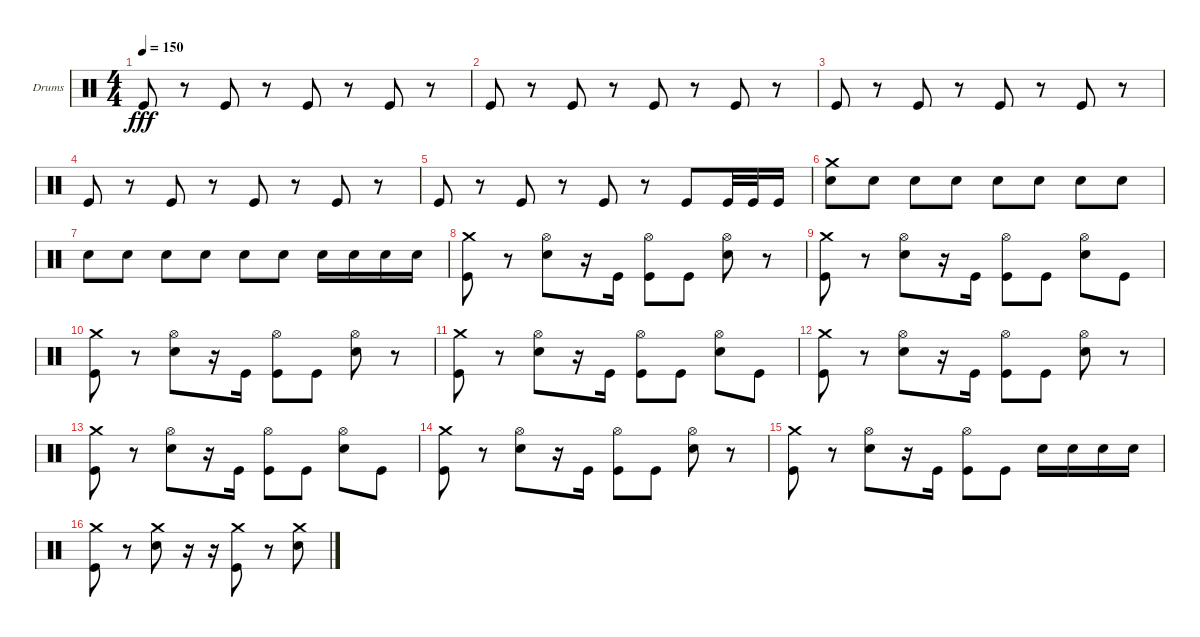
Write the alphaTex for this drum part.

\bracketExtendMode groupsimilarinstruments
\firstSystemTrackNameOrientation horizontal
\otherSystemsTrackNameOrientation horizontal
\track ("Jamie" "Drums") {instrument percussion}
\staff {score}
\articulation defaults
\ts (4 4)
\tempo 150
\clef neutral
\ks c "Kick (hit)".8{dy fff}
r.8 "Kick (hit)".8 r.8 "Kick (hit)".8 r.8 "Kick (hit)".8 r.8 |
"Kick (hit)".8 r.8 "Kick (hit)".8 r.8 "Kick (hit)".8 r.8 "Kick (hit)".8 r.8 |
"Kick (hit)".8 r.8 "Kick (hit)".8 r.8 "Kick (hit)".8 r.8 "Kick (hit)".8 r.8 |
"Kick (hit)".8 r.8 "Kick (hit)".8 r.8 "Kick (hit)".8 r.8 "Kick (hit)".8 r.8 |
"Kick (hit)".8 r.8 "Kick (hit)".8 r.8 "Kick (hit)".8 r.8 "Kick (hit)".8 "Kick (hit)".32 "Kick (hit)".32 "Kick (hit)".16 |
("Snare (hit) 2" "Crash medium (hit)").8 "Snare (hit) 2".8 "Snare (hit) 2".8 "Snare (hit) 2".8 "Snare (hit) 2".8 "Snare (hit) 2".8 "Snare (hit) 2".8 "Snare (hit) 2".8 |
"Snare (hit) 2".8 "Snare (hit) 2".8 "Snare (hit) 2".8 "Snare (hit) 2".8 "Snare (hit) 2".8 "Snare (hit) 2".8 "Snare (hit) 2".16 "Snare (hit) 2".16 "Snare (hit) 2".16 "Snare (hit) 2".16 |
("Kick (hit)" "Crash medium (hit)").8 r.8 ("Snare (hit) 2" "Hi-Hat (open)").8 r.16 "Kick (hit)".16 ("Kick (hit)" "Hi-Hat (open)").8 "Kick (hit)".8 ("Snare (hit) 2" "Hi-Hat (open)").8 r.8 |
("Kick (hit)" "Crash medium (hit)").8 r.8 ("Snare (hit) 2" "Hi-Hat (open)").8 r.16 "Kick (hit)".16 ("Kick (hit)" "Hi-Hat (open)").8 "Kick (hit)".8 ("Snare (hit) 2" "Hi-Hat (open)").8 "Kick (hit)".8 |
("Kick (hit)" "Crash medium (hit)").8 r.8 ("Snare (hit) 2" "Hi-Hat (open)").8 r.16 "Kick (hit)".16 ("Kick (hit)" "Hi-Hat (open)").8 "Kick (hit)".8 ("Snare (hit) 2" "Hi-Hat (open)").8 r.8 |
("Kick (hit)" "Crash medium (hit)").8 r.8 ("Snare (hit) 2" "Hi-Hat (open)").8 r.16 "Kick (hit)".16 ("Kick (hit)" "Hi-Hat (open)").8 "Kick (hit)".8 ("Snare (hit) 2" "Hi-Hat (open)").8 "Kick (hit)".8 |
("Kick (hit)" "Crash medium (hit)").8 r.8 ("Snare (hit) 2" "Hi-Hat (open)").8 r.16 "Kick (hit)".16 ("Kick (hit)" "Hi-Hat (open)").8 "Kick (hit)".8 ("Snare (hit) 2" "Hi-Hat (open)").8 r.8 |
("Kick (hit)" "Crash medium (hit)").8 r.8 ("Snare (hit) 2" "Hi-Hat (open)").8 r.16 "Kick (hit)".16 ("Kick (hit)" "Hi-Hat (open)").8 "Kick (hit)".8 ("Snare (hit) 2" "Hi-Hat (open)").8 "Kick (hit)".8 |
("Kick (hit)" "Crash medium (hit)").8 r.8 ("Snare (hit) 2" "Hi-Hat (open)").8 r.16 "Kick (hit)".16 ("Kick (hit)" "Hi-Hat (open)").8 "Kick (hit)".8 ("Snare (hit) 2" "Hi-Hat (open)").8 r.8 |
("Kick (hit)" "Crash medium (hit)").8 r.8 ("Snare (hit) 2" "Hi-Hat (open)").8 r.16 "Kick (hit)".16 ("Kick (hit)" "Hi-Hat (open)").8 "Kick (hit)".8 "Snare (hit) 2".16 "Snare (hit) 2".16 "Snare (hit) 2".16 "Snare (hit) 2".16 |
("Kick (hit)" "Crash medium (hit)").8 r.8 ("Snare (hit) 2" "Crash medium (hit)").8 r.16 r.16 ("Kick (hit)" "Crash medium (hit)").8 r.8 ("Snare (hit) 2" "Crash medium (hit)").8
